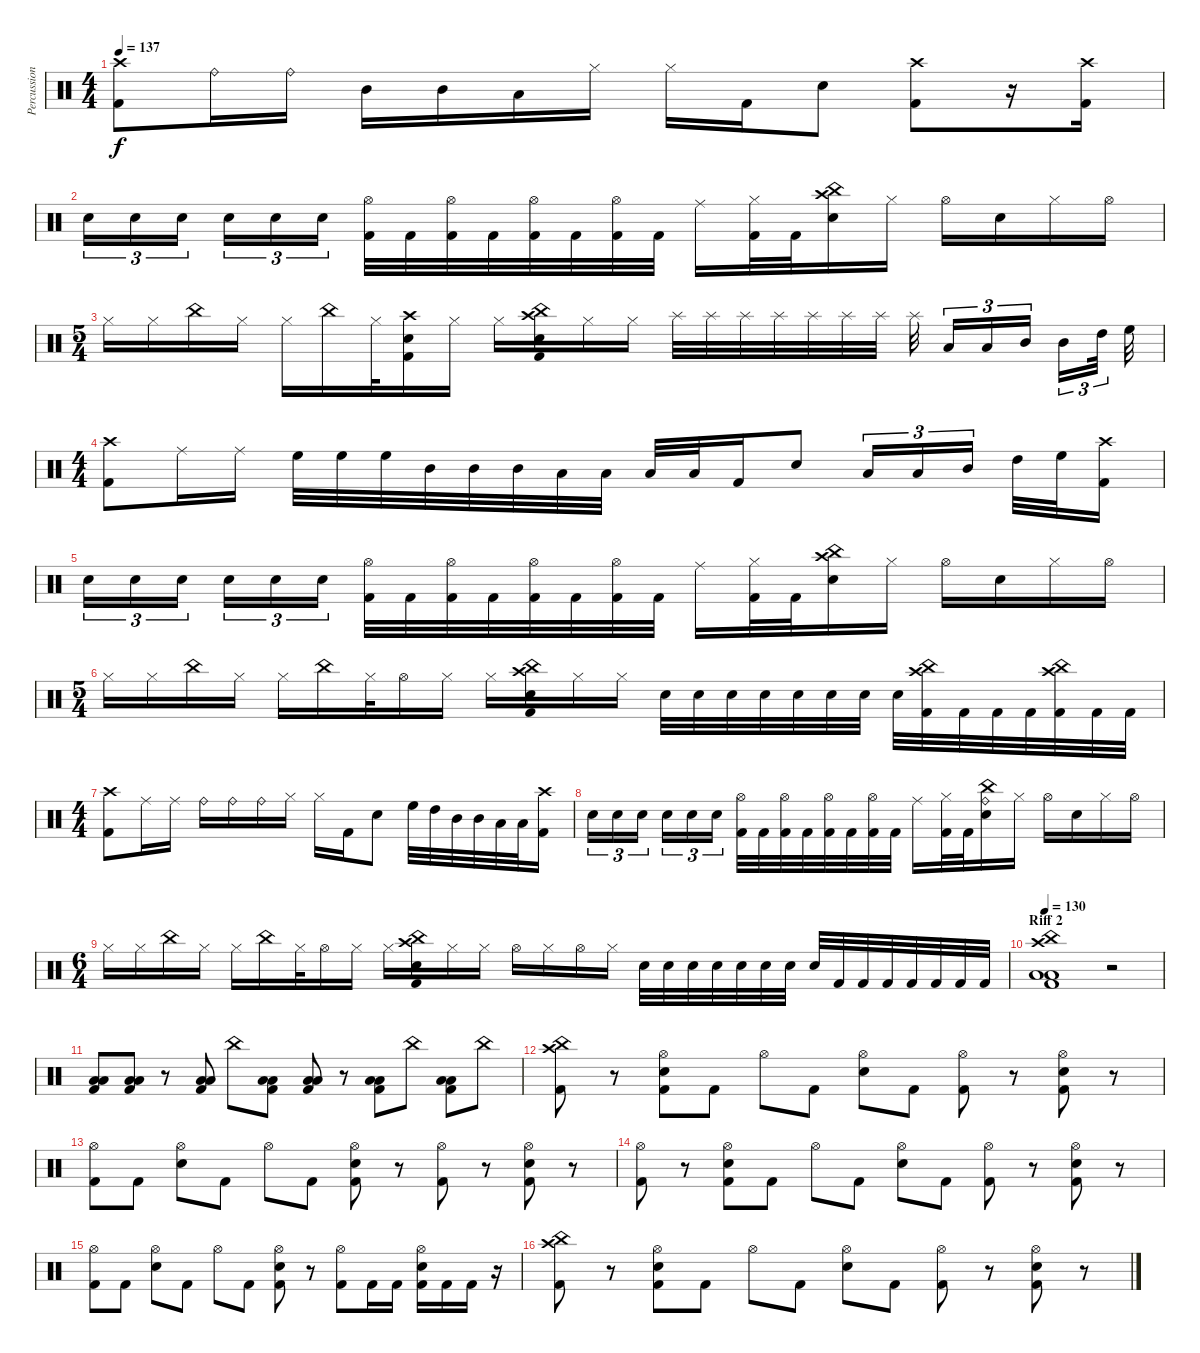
\track ("Percussion" "Percussion") {instrument percussion}
\staff {score}
\articulation defaults
\ts (4 4)
\tempo 137
\clef neutral
\ks c
("Crash high (hit)" "Kick (hit) 2").8{dy f} "Ride (bell)".16 "Ride (bell)".16 "Mid Tom (hit)".16 "Mid Tom (hit)".16 "Low Tom (hit)".16 "Hi-Hat (closed)".16 "Hi-Hat (closed)".16 "Kick (hit) 2".16 "Electric Snare (hit)".8 ("Crash high (hit)" "Kick (hit) 2").8 r.16 ("Crash high (hit)" "Kick (hit) 2").16 |
"Electric Snare (hit)".16{tu (3 2)} "Electric Snare (hit)".16{tu (3 2)} "Electric Snare (hit)".16{tu (3 2)} "Electric Snare (hit)".16{tu (3 2)} "Electric Snare (hit)".16{tu (3 2)} "Electric Snare (hit)".16{tu (3 2)} ("Hi-Hat (open)" "Kick (hit) 2").32 "Kick (hit) 2".32 ("Hi-Hat (open)" "Kick (hit) 2").32 "Kick (hit) 2".32 ("Hi-Hat (open)" "Kick (hit) 2").32 "Kick (hit) 2".32 ("Hi-Hat (open)" "Kick (hit) 2").32 "Kick (hit) 2".32 "Ride (middle)".16 ("Hi-Hat (closed)" "Kick (hit) 2").32 "Kick (hit) 2".32 ("China (hit)" "Crash high (hit)" "Electric Snare (hit)").16 "Hi-Hat (closed)".16 "Hi-Hat (open)".16 "Electric Snare (hit)".16 "Hi-Hat (closed)".16 "Hi-Hat (open)".16 |
\ts (5 4)
"Hi-Hat (closed)".16 "Hi-Hat (closed)".16 "China (hit)".16 "Hi-Hat (closed)".16 "Hi-Hat (closed)".16 "China (hit)".16 "Hi-Hat (closed)".32 ("Crash high (hit)" "Electric Snare (hit)" "Kick (hit) 2").16 "Hi-Hat (closed)".16 "Hi-Hat (closed)".16 ("China (hit)" "Crash high (hit)" "Electric Snare (hit)" "Kick (hit) 2").16 "Hi-Hat (closed)".16 "Hi-Hat (closed)".16 "Splash (hit)".32 "Splash (hit)".32 "Splash (hit)".32 "Splash (hit)".32 "Splash (hit)".32 "Splash (hit)".32 "Splash (hit)".32 "Splash (hit)".32 "Low Floor Tom (hit)".16{tu (3 2)} "Low Tom (hit)".16{tu (3 2)} "Mid Tom (hit)".16{tu (3 2)} "Mid Tom (hit)".16{tu (3 2)} "High Tom (hit)".32{tu (3 2)} "High Floor Tom (hit)".32 |
\ts (4 4)
("Crash high (hit)" "Kick (hit) 2").8 "Ride (middle)".16 "Ride (middle)".16 "High Floor Tom (hit)".32 "High Floor Tom (hit)".32 "High Floor Tom (hit)".32 "Mid Tom (hit)".32 "Mid Tom (hit)".32 "Mid Tom (hit)".32 "Low Tom (hit)".32 "Low Tom (hit)".32 "Low Tom (hit)".32 "Low Floor Tom (hit)".32 "Kick (hit) 2".16 "Electric Snare (hit)".8 "Low Floor Tom (hit)".16{tu (3 2)} "Low Tom (hit)".16{tu (3 2)} "Mid Tom (hit)".16{tu (3 2)} "High Tom (hit)".32 "High Floor Tom (hit)".32 ("Crash high (hit)" "Kick (hit) 2").16 |
"Electric Snare (hit)".16{tu (3 2)} "Electric Snare (hit)".16{tu (3 2)} "Electric Snare (hit)".16{tu (3 2)} "Electric Snare (hit)".16{tu (3 2)} "Electric Snare (hit)".16{tu (3 2)} "Electric Snare (hit)".16{tu (3 2)} ("Hi-Hat (open)" "Kick (hit) 2").32 "Kick (hit) 2".32 ("Hi-Hat (open)" "Kick (hit) 2").32 "Kick (hit) 2".32 ("Hi-Hat (open)" "Kick (hit) 2").32 "Kick (hit) 2".32 ("Hi-Hat (open)" "Kick (hit) 2").32 "Kick (hit) 2".32 "Ride (middle)".16 ("Hi-Hat (closed)" "Kick (hit) 2").32 "Kick (hit) 2".32 ("China (hit)" "Crash high (hit)" "Electric Snare (hit)").16 "Hi-Hat (closed)".16 "Hi-Hat (open)".16 "Electric Snare (hit)".16 "Hi-Hat (closed)".16 "Hi-Hat (open)".16 |
\ts (5 4)
"Hi-Hat (closed)".16 "Hi-Hat (closed)".16 "China (hit)".16 "Hi-Hat (closed)".16 "Hi-Hat (closed)".16 "China (hit)".16 "Hi-Hat (closed)".32 "Hi-Hat (open)".16 "Hi-Hat (closed)".16 "Hi-Hat (closed)".16 ("China (hit)" "Crash high (hit)" "Electric Snare (hit)" "Kick (hit) 2").16 "Hi-Hat (closed)".16 "Hi-Hat (closed)".16 "Electric Snare (hit)".32 "Electric Snare (hit)".32 "Electric Snare (hit)".32 "Electric Snare (hit)".32 "Electric Snare (hit)".32 "Electric Snare (hit)".32 "Electric Snare (hit)".32 "Electric Snare (hit)".32 ("China (hit)" "Crash high (hit)" "Kick (hit) 2").32 "Kick (hit) 2".32 "Kick (hit) 2".32 "Kick (hit) 2".32 ("China (hit)" "Crash high (hit)" "Kick (hit) 2").32 "Kick (hit) 2".32 "Kick (hit) 2".32 |
\ts (4 4)
("Crash high (hit)" "Kick (hit) 2").8 "Ride (middle)".16 "Ride (middle)".16 "Ride (bell)".16 "Ride (bell)".16 "Ride (bell)".16 "Hi-Hat (closed)".16 "Hi-Hat (closed)".16 "Kick (hit) 2".16 "Electric Snare (hit)".8 "High Floor Tom (hit)".32 "High Tom (hit)".32 "Mid Tom (hit)".32 "Mid Tom (hit)".32 "Low Tom (hit)".32 "Low Floor Tom (hit)".32 ("Crash high (hit)" "Kick (hit) 2").16 |
"Electric Snare (hit)".16{tu (3 2)} "Electric Snare (hit)".16{tu (3 2)} "Electric Snare (hit)".16{tu (3 2)} "Electric Snare (hit)".16{tu (3 2)} "Electric Snare (hit)".16{tu (3 2)} "Electric Snare (hit)".16{tu (3 2)} ("Hi-Hat (open)" "Kick (hit) 2").32 "Kick (hit) 2".32 ("Hi-Hat (open)" "Kick (hit) 2").32 "Kick (hit) 2".32 ("Hi-Hat (open)" "Kick (hit) 2").32 "Kick (hit) 2".32 ("Hi-Hat (open)" "Kick (hit) 2").32 "Kick (hit) 2".32 "Ride (middle)".16 ("Hi-Hat (closed)" "Kick (hit) 2").32 "Kick (hit) 2".32 ("China (hit)" "Ride (bell)" "Electric Snare (hit)").16 "Hi-Hat (closed)".16 "Hi-Hat (open)".16 "Electric Snare (hit)".16 "Hi-Hat (closed)".16 "Hi-Hat (open)".16 |
\ts (6 4)
"Hi-Hat (closed)".16 "Hi-Hat (closed)".16 "China (hit)".16 "Hi-Hat (closed)".16 "Hi-Hat (closed)".16 "China (hit)".16 "Hi-Hat (closed)".32 "Hi-Hat (open)".16 "Hi-Hat (closed)".16 "Hi-Hat (closed)".16 ("China (hit)" "Crash high (hit)" "Electric Snare (hit)" "Kick (hit) 2").16 "Hi-Hat (closed)".16 "Hi-Hat (closed)".16 "Hi-Hat (open)".16 "Hi-Hat (closed)".16 "Hi-Hat (open)".16 "Hi-Hat (closed)".16 "Electric Snare (hit)".32 "Electric Snare (hit)".32 "Electric Snare (hit)".32 "Electric Snare (hit)".32 "Electric Snare (hit)".32 "Electric Snare (hit)".32 "Electric Snare (hit)".32 "Electric Snare (hit)".32 "Kick (hit) 2".32 "Kick (hit) 2".32 "Kick (hit) 2".32 "Kick (hit) 2".32 "Kick (hit) 2".32 "Kick (hit) 2".32 "Kick (hit) 2".32 |
\section ("" "Riff 2")
\tempo 130
("China (hit)" "Crash high (hit)" "Low Floor Tom (hit)" "Low Floor Tom (hit)" "Kick (hit) 2").1 r.2 |
("Low Tom (hit)" "Low Floor Tom (hit)" "Kick (hit) 2").8 ("Low Tom (hit)" "Low Floor Tom (hit)" "Kick (hit) 2").8 r.8 ("Low Tom (hit)" "Low Floor Tom (hit)" "Kick (hit) 2").8 "China (hit)".8 ("Low Tom (hit)" "Low Floor Tom (hit)" "Kick (hit) 2").8 ("Low Tom (hit)" "Low Floor Tom (hit)" "Kick (hit) 2").8 r.8 ("Low Tom (hit)" "Low Floor Tom (hit)" "Kick (hit) 2").8 "China (hit)".8 ("Low Tom (hit)" "Low Floor Tom (hit)" "Kick (hit) 2").8 "China (hit)".8 |
("China (hit)" "Crash high (hit)" "Kick (hit) 2").8 r.8 ("Hi-Hat (open)" "Electric Snare (hit)" "Kick (hit) 2").8 "Kick (hit) 2".8 "Hi-Hat (open)".8 "Kick (hit) 2".8 ("Hi-Hat (open)" "Electric Snare (hit)").8 "Kick (hit) 2".8 ("Hi-Hat (open)" "Kick (hit) 2").8 r.8 ("Hi-Hat (open)" "Electric Snare (hit)" "Kick (hit) 2").8 r.8 |
("Hi-Hat (open)" "Kick (hit) 2").8 "Kick (hit) 2".8 ("Hi-Hat (open)" "Electric Snare (hit)").8 "Kick (hit) 2".8 "Hi-Hat (open)".8 "Kick (hit) 2".8 ("Hi-Hat (open)" "Electric Snare (hit)" "Kick (hit) 2").8 r.8 ("Hi-Hat (open)" "Kick (hit) 2").8 r.8 ("Hi-Hat (open)" "Electric Snare (hit)" "Kick (hit) 2").8 r.8 |
("Hi-Hat (open)" "Kick (hit) 2").8 r.8 ("Hi-Hat (open)" "Electric Snare (hit)" "Kick (hit) 2").8 "Kick (hit) 2".8 "Hi-Hat (open)".8 "Kick (hit) 2".8 ("Hi-Hat (open)" "Electric Snare (hit)").8 "Kick (hit) 2".8 ("Hi-Hat (open)" "Kick (hit) 2").8 r.8 ("Hi-Hat (open)" "Electric Snare (hit)" "Kick (hit) 2").8 r.8 |
("Hi-Hat (open)" "Kick (hit) 2").8 "Kick (hit) 2".8 ("Hi-Hat (open)" "Electric Snare (hit)").8 "Kick (hit) 2".8 "Hi-Hat (open)".8 "Kick (hit) 2".8 ("Hi-Hat (open)" "Electric Snare (hit)" "Kick (hit) 2").8 r.8 ("Hi-Hat (open)" "Kick (hit) 2").8 "Kick (hit) 2".16 "Kick (hit) 2".16 ("Hi-Hat (open)" "Electric Snare (hit)" "Kick (hit) 2").16 "Kick (hit) 2".16 "Kick (hit) 2".16 r.16 |
("China (hit)" "Crash high (hit)" "Kick (hit) 2").8 r.8 ("Hi-Hat (open)" "Electric Snare (hit)" "Kick (hit) 2").8 "Kick (hit) 2".8 "Hi-Hat (open)".8 "Kick (hit) 2".8 ("Hi-Hat (open)" "Electric Snare (hit)").8 "Kick (hit) 2".8 ("Hi-Hat (open)" "Kick (hit) 2").8 r.8 ("Hi-Hat (open)" "Electric Snare (hit)" "Kick (hit) 2").8 r.8
